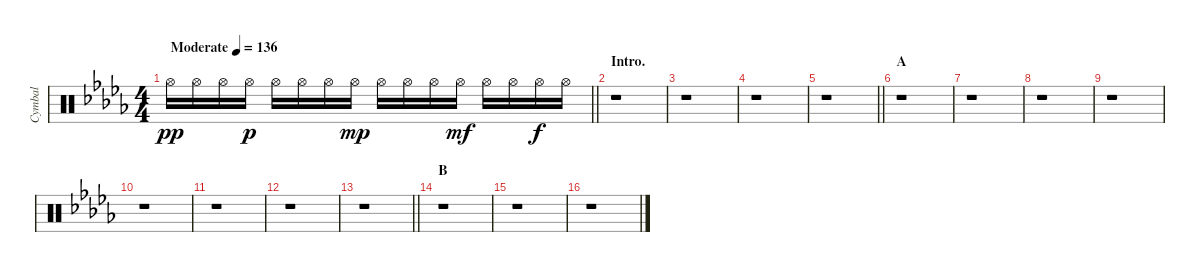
\track ("Cymbal" "Cymbal") {instrument percussion}
\staff {score}
\articulation defaults
\ts (4 4)
\tempo (136 "Moderate")
\clef neutral
\barLineRight lightlight
\ks db "Hi-Hat (open)".16{dy pp} "Hi-Hat (open)".16 "Hi-Hat (open)".16 "Hi-Hat (open)".16{dy p} "Hi-Hat (open)".16 "Hi-Hat (open)".16 "Hi-Hat (open)".16 "Hi-Hat (open)".16{dy mp} "Hi-Hat (open)".16 "Hi-Hat (open)".16 "Hi-Hat (open)".16 "Hi-Hat (open)".16{dy mf} "Hi-Hat (open)".16 "Hi-Hat (open)".16 "Hi-Hat (open)".16{dy f} "Hi-Hat (open)".16
|
\section ("" "Intro.")
r.1 |
r.1 |
r.1 |
\barLineRight lightlight
r.1 |
\section ("" "A")
r.1 |
r.1 |
r.1 |
r.1 |
r.1 |
r.1 |
r.1 |
\barLineRight lightlight
r.1 |
\section ("" "B")
r.1 |
r.1 |
r.1
